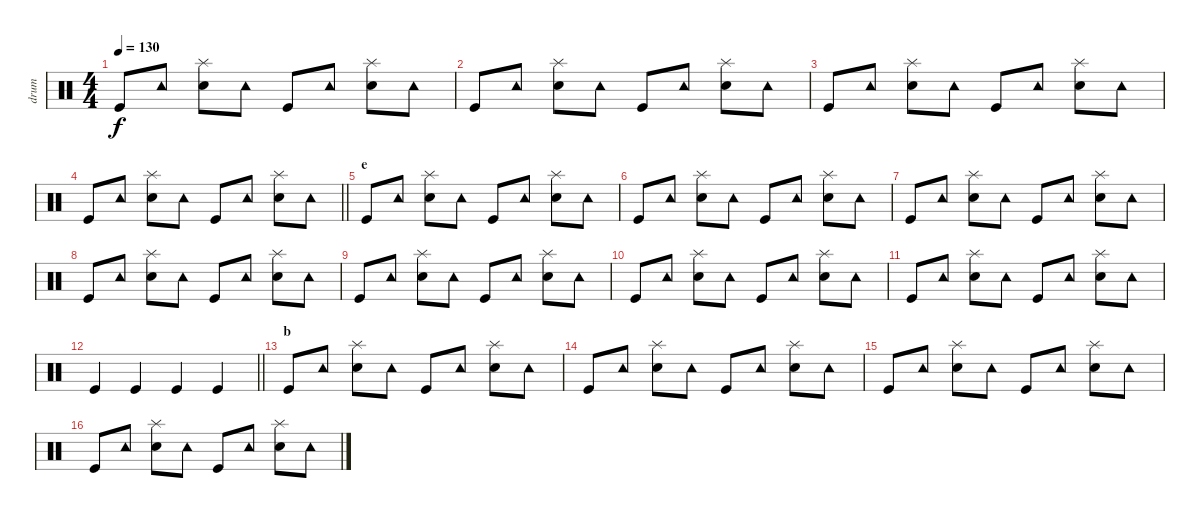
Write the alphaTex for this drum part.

\track ("drum" "drum") {instrument percussion}
\staff {score}
\articulation defaults
\ts (4 4)
\tempo 130
\clef neutral
\ks c "Kick (hit)".8{dy f} "Tambourine (hit)".8
("Snare (hit) 2" "Splash (hit)").8 "Tambourine (hit)".8 "Kick (hit)".8 "Tambourine (hit)".8 ("Snare (hit) 2" "Splash (hit)").8 "Tambourine (hit)".8 |
"Kick (hit)".8 "Tambourine (hit)".8 ("Snare (hit) 2" "Splash (hit)").8 "Tambourine (hit)".8 "Kick (hit)".8 "Tambourine (hit)".8 ("Snare (hit) 2" "Splash (hit)").8 "Tambourine (hit)".8 |
"Kick (hit)".8 "Tambourine (hit)".8 ("Snare (hit) 2" "Splash (hit)").8 "Tambourine (hit)".8 "Kick (hit)".8 "Tambourine (hit)".8 ("Snare (hit) 2" "Splash (hit)").8 "Tambourine (hit)".8 |
\barLineRight lightlight "Kick (hit)".8 "Tambourine (hit)".8
("Snare (hit) 2" "Splash (hit)").8 "Tambourine (hit)".8 "Kick (hit)".8 "Tambourine (hit)".8 ("Snare (hit) 2" "Splash (hit)").8 "Tambourine (hit)".8 |
\section ("" "e")
"Kick (hit)".8 "Tambourine (hit)".8 ("Snare (hit) 2" "Splash (hit)").8 "Tambourine (hit)".8 "Kick (hit)".8 "Tambourine (hit)".8 ("Snare (hit) 2" "Splash (hit)").8 "Tambourine (hit)".8 |
"Kick (hit)".8 "Tambourine (hit)".8 ("Snare (hit) 2" "Splash (hit)").8 "Tambourine (hit)".8 "Kick (hit)".8 "Tambourine (hit)".8 ("Snare (hit) 2" "Splash (hit)").8 "Tambourine (hit)".8 |
"Kick (hit)".8 "Tambourine (hit)".8 ("Snare (hit) 2" "Splash (hit)").8 "Tambourine (hit)".8 "Kick (hit)".8 "Tambourine (hit)".8 ("Snare (hit) 2" "Splash (hit)").8 "Tambourine (hit)".8 |
"Kick (hit)".8 "Tambourine (hit)".8 ("Snare (hit) 2" "Splash (hit)").8 "Tambourine (hit)".8 "Kick (hit)".8 "Tambourine (hit)".8 ("Snare (hit) 2" "Splash (hit)").8 "Tambourine (hit)".8 |
"Kick (hit)".8 "Tambourine (hit)".8 ("Snare (hit) 2" "Splash (hit)").8 "Tambourine (hit)".8 "Kick (hit)".8 "Tambourine (hit)".8 ("Snare (hit) 2" "Splash (hit)").8 "Tambourine (hit)".8 |
"Kick (hit)".8 "Tambourine (hit)".8 ("Snare (hit) 2" "Splash (hit)").8 "Tambourine (hit)".8 "Kick (hit)".8 "Tambourine (hit)".8 ("Snare (hit) 2" "Splash (hit)").8 "Tambourine (hit)".8 |
"Kick (hit)".8 "Tambourine (hit)".8 ("Snare (hit) 2" "Splash (hit)").8 "Tambourine (hit)".8 "Kick (hit)".8 "Tambourine (hit)".8 ("Snare (hit) 2" "Splash (hit)").8 "Tambourine (hit)".8 |
\barLineRight lightlight "Kick (hit)".4 "Kick (hit)".4 "Kick (hit)".4 "Kick (hit)".4
|
\section ("" "b")
"Kick (hit)".8 "Tambourine (hit)".8 ("Snare (hit) 2" "Splash (hit)").8 "Tambourine (hit)".8 "Kick (hit)".8 "Tambourine (hit)".8 ("Snare (hit) 2" "Splash (hit)").8 "Tambourine (hit)".8 |
"Kick (hit)".8 "Tambourine (hit)".8 ("Snare (hit) 2" "Splash (hit)").8 "Tambourine (hit)".8 "Kick (hit)".8 "Tambourine (hit)".8 ("Snare (hit) 2" "Splash (hit)").8 "Tambourine (hit)".8 |
"Kick (hit)".8 "Tambourine (hit)".8 ("Snare (hit) 2" "Splash (hit)").8 "Tambourine (hit)".8 "Kick (hit)".8 "Tambourine (hit)".8 ("Snare (hit) 2" "Splash (hit)").8 "Tambourine (hit)".8 |
"Kick (hit)".8 "Tambourine (hit)".8 ("Snare (hit) 2" "Splash (hit)").8 "Tambourine (hit)".8 "Kick (hit)".8 "Tambourine (hit)".8 ("Snare (hit) 2" "Splash (hit)").8 "Tambourine (hit)".8
